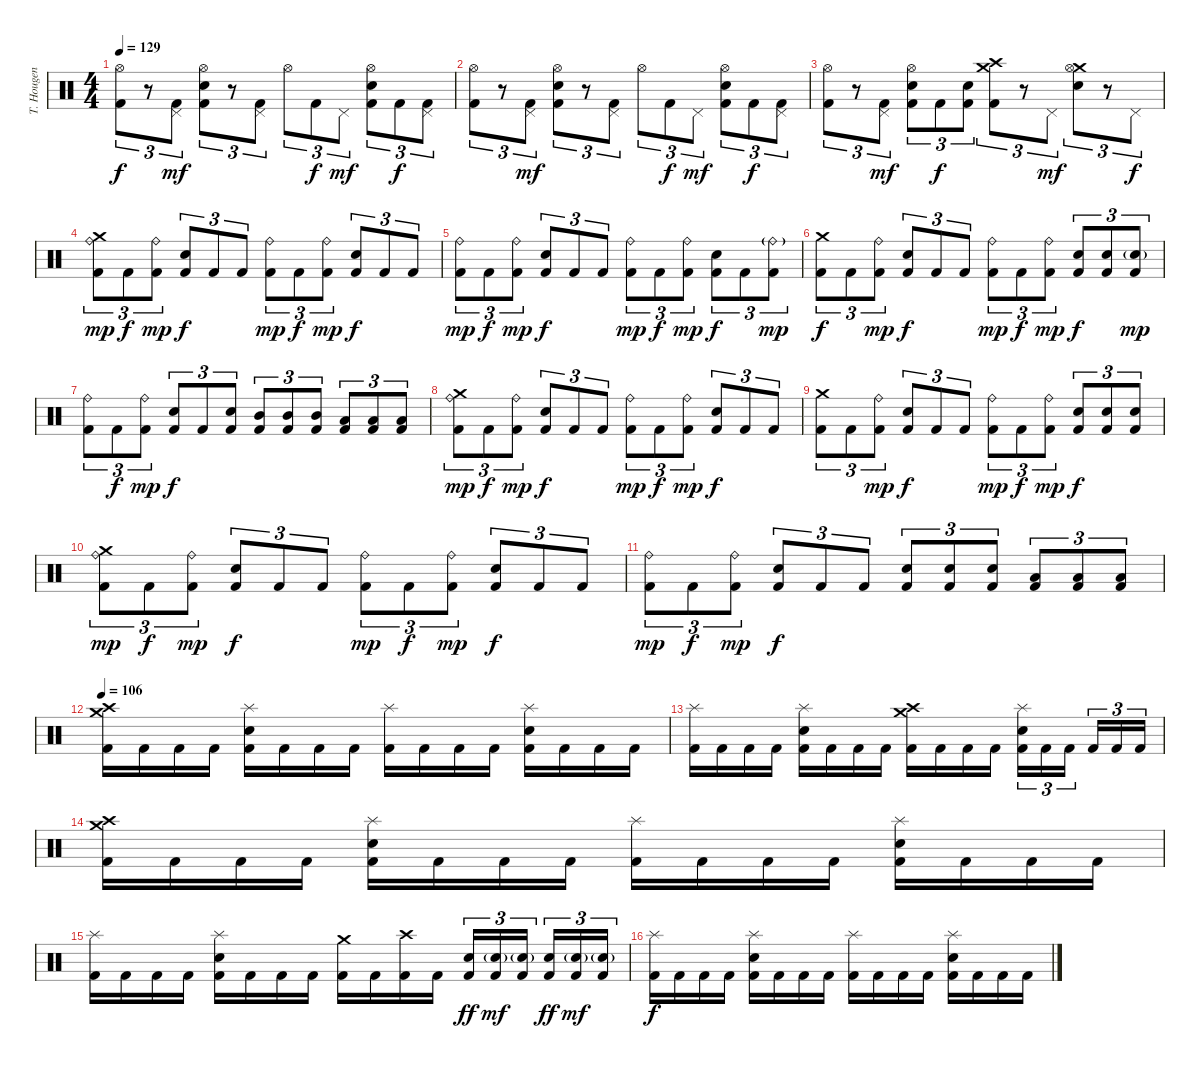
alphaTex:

\track ("T. Hougen - Drums" "T. Hougen ") {instrument percussion}
\staff {score}
\articulation defaults
\ts (4 4)
\tempo 129
\clef neutral
\ks c
("Hi-Hat (open)" "Kick (hit) 2").8{tu (3 2) dy f} r.8{tu (3 2)} ("Pedal Hi-Hat (hit)" "Kick (hit) 2").8{tu (3 2) dy mf} ("Hi-Hat (open)" "Electric Snare (hit)" "Kick (hit) 2").8{tu (3 2)} r.8{tu (3 2)} ("Pedal Hi-Hat (hit)" "Kick (hit) 2").8{tu (3 2)} "Hi-Hat (open)".8{tu (3 2)} "Kick (hit) 2".8{tu (3 2) dy f} "Pedal Hi-Hat (hit)".8{tu (3 2) dy mf} ("Hi-Hat (open)" "Electric Snare (hit)" "Kick (hit) 2").8{tu (3 2)} "Kick (hit) 2".8{tu (3 2) dy f} ("Pedal Hi-Hat (hit)" "Kick (hit) 2").8{tu (3 2)} |
("Hi-Hat (open)" "Kick (hit) 2").8{tu (3 2)} r.8{tu (3 2)} ("Pedal Hi-Hat (hit)" "Kick (hit) 2").8{tu (3 2) dy mf} ("Hi-Hat (open)" "Electric Snare (hit)" "Kick (hit) 2").8{tu (3 2)} r.8{tu (3 2)} ("Pedal Hi-Hat (hit)" "Kick (hit) 2").8{tu (3 2)} "Hi-Hat (open)".8{tu (3 2)} "Kick (hit) 2".8{tu (3 2) dy f} "Pedal Hi-Hat (hit)".8{tu (3 2) dy mf} ("Hi-Hat (open)" "Electric Snare (hit)" "Kick (hit) 2").8{tu (3 2)} "Kick (hit) 2".8{tu (3 2) dy f} ("Pedal Hi-Hat (hit)" "Kick (hit) 2").8{tu (3 2)} |
("Hi-Hat (open)" "Kick (hit) 2").8{tu (3 2)} r.8{tu (3 2)} ("Pedal Hi-Hat (hit)" "Kick (hit) 2").8{tu (3 2) dy mf} ("Hi-Hat (open)" "Electric Snare (hit)" "Kick (hit) 2").8{tu (3 2)} "Kick (hit) 2".8{tu (3 2) dy f} ("Electric Snare (hit)" "Kick (hit) 2").8{tu (3 2)} ("Crash medium (hit)" "Crash high (hit)" "Kick (hit) 2").8{tu (3 2)} r.8{tu (3 2)} "Pedal Hi-Hat (hit)".8{tu (3 2) dy mf} ("Crash medium (hit)" "Hi-Hat (open)" "Electric Snare (hit)").8{tu (3 2)} r.8{tu (3 2)} "Pedal Hi-Hat (hit)".8{tu (3 2) dy f} |
("Crash medium (hit)" "Ride (bell)" "Kick (hit) 2").8{tu (3 2) dy mp volume 12} "Kick (hit) 2".8{tu (3 2) dy f} ("Ride (bell)" "Kick (hit) 2").8{tu (3 2) dy mp} ("Electric Snare (hit)" "Kick (hit) 2").8{tu (3 2) dy f} "Kick (hit) 2".8{tu (3 2)} "Kick (hit) 2".8{tu (3 2)} ("Ride (bell)" "Kick (hit) 2").8{tu (3 2) dy mp} "Kick (hit) 2".8{tu (3 2) dy f} ("Ride (bell)" "Kick (hit) 2").8{tu (3 2) dy mp} ("Electric Snare (hit)" "Kick (hit) 2").8{tu (3 2) dy f} "Kick (hit) 2".8{tu (3 2)} "Kick (hit) 2".8{tu (3 2)} |
("Ride (bell)" "Kick (hit) 2").8{tu (3 2) dy mp} "Kick (hit) 2".8{tu (3 2) dy f} ("Ride (bell)" "Kick (hit) 2").8{tu (3 2) dy mp} ("Electric Snare (hit)" "Kick (hit) 2").8{tu (3 2) dy f} "Kick (hit) 2".8{tu (3 2)} "Kick (hit) 2".8{tu (3 2)} ("Ride (bell)" "Kick (hit) 2").8{tu (3 2) dy mp} "Kick (hit) 2".8{tu (3 2) dy f} ("Ride (bell)" "Kick (hit) 2").8{tu (3 2) dy mp} ("Electric Snare (hit)" "Kick (hit) 2").8{tu (3 2) dy f} "Kick (hit) 2".8{tu (3 2)} ("Ride (bell)"{g} "Kick (hit) 2").8{tu (3 2) dy mp} |
("Crash medium (hit)" "Kick (hit) 2").8{tu (3 2) dy f} "Kick (hit) 2".8{tu (3 2)} ("Ride (bell)" "Kick (hit) 2").8{tu (3 2) dy mp} ("Electric Snare (hit)" "Kick (hit) 2").8{tu (3 2) dy f} "Kick (hit) 2".8{tu (3 2)} "Kick (hit) 2".8{tu (3 2)} ("Ride (bell)" "Kick (hit) 2").8{tu (3 2) dy mp} "Kick (hit) 2".8{tu (3 2) dy f} ("Ride (bell)" "Kick (hit) 2").8{tu (3 2) dy mp} ("Electric Snare (hit)" "Kick (hit) 2").8{tu (3 2) dy f} ("Electric Snare (hit)" "Kick (hit) 2").8{tu (3 2)} ("Electric Snare (hit)"{g} "Kick (hit) 2").8{tu (3 2) dy mp} |
("Ride (bell)" "Kick (hit) 2").8{tu (3 2)} "Kick (hit) 2".8{tu (3 2) dy f} ("Ride (bell)" "Kick (hit) 2").8{tu (3 2) dy mp} ("Electric Snare (hit)" "Kick (hit) 2").8{tu (3 2) dy f} "Kick (hit) 2".8{tu (3 2)} ("Electric Snare (hit)" "Kick (hit) 2").8{tu (3 2)} ("Mid Tom (hit)" "Kick (hit) 2").8{tu (3 2)} ("Mid Tom (hit)" "Kick (hit) 2").8{tu (3 2)} ("Mid Tom (hit)" "Kick (hit) 2").8{tu (3 2)} ("Low Tom (hit)" "Kick (hit) 2").8{tu (3 2)} ("Low Tom (hit)" "Kick (hit) 2").8{tu (3 2)} ("Low Tom (hit)" "Kick (hit) 2").8{tu (3 2)} |
("Crash medium (hit)" "Ride (bell)" "Kick (hit) 2").8{tu (3 2) dy mp} "Kick (hit) 2".8{tu (3 2) dy f} ("Ride (bell)" "Kick (hit) 2").8{tu (3 2) dy mp} ("Electric Snare (hit)" "Kick (hit) 2").8{tu (3 2) dy f} "Kick (hit) 2".8{tu (3 2)} "Kick (hit) 2".8{tu (3 2)} ("Ride (bell)" "Kick (hit) 2").8{tu (3 2) dy mp} "Kick (hit) 2".8{tu (3 2) dy f} ("Ride (bell)" "Kick (hit) 2").8{tu (3 2) dy mp} ("Electric Snare (hit)" "Kick (hit) 2").8{tu (3 2) dy f} "Kick (hit) 2".8{tu (3 2)} "Kick (hit) 2".8{tu (3 2)} |
("Crash medium (hit)" "Kick (hit) 2").8{tu (3 2)} "Kick (hit) 2".8{tu (3 2)} ("Ride (bell)" "Kick (hit) 2").8{tu (3 2) dy mp} ("Electric Snare (hit)" "Kick (hit) 2").8{tu (3 2) dy f} "Kick (hit) 2".8{tu (3 2)} "Kick (hit) 2".8{tu (3 2)} ("Ride (bell)" "Kick (hit) 2").8{tu (3 2) dy mp} "Kick (hit) 2".8{tu (3 2) dy f} ("Ride (bell)" "Kick (hit) 2").8{tu (3 2) dy mp} ("Electric Snare (hit)" "Kick (hit) 2").8{tu (3 2) dy f} ("Electric Snare (hit)" "Kick (hit) 2").8{tu (3 2)} ("Electric Snare (hit)" "Kick (hit) 2").8{tu (3 2)} |
("Crash medium (hit)" "Ride (bell)" "Kick (hit) 2").8{tu (3 2) dy mp} "Kick (hit) 2".8{tu (3 2) dy f} ("Ride (bell)" "Kick (hit) 2").8{tu (3 2) dy mp} ("Electric Snare (hit)" "Kick (hit) 2").8{tu (3 2) dy f} "Kick (hit) 2".8{tu (3 2)} "Kick (hit) 2".8{tu (3 2)} ("Ride (bell)" "Kick (hit) 2").8{tu (3 2) dy mp} "Kick (hit) 2".8{tu (3 2) dy f} ("Ride (bell)" "Kick (hit) 2").8{tu (3 2) dy mp} ("Electric Snare (hit)" "Kick (hit) 2").8{tu (3 2) dy f} "Kick (hit) 2".8{tu (3 2)} "Kick (hit) 2".8{tu (3 2)} |
("Ride (bell)" "Kick (hit) 2").8{tu (3 2) dy mp} "Kick (hit) 2".8{tu (3 2) dy f} ("Ride (bell)" "Kick (hit) 2").8{tu (3 2) dy mp} ("Electric Snare (hit)" "Kick (hit) 2").8{tu (3 2) dy f} "Kick (hit) 2".8{tu (3 2)} "Kick (hit) 2".8{tu (3 2)} ("Electric Snare (hit)" "Kick (hit) 2").8{tu (3 2)} ("Electric Snare (hit)" "Kick (hit) 2").8{tu (3 2)} ("Electric Snare (hit)" "Kick (hit) 2").8{tu (3 2)} ("Low Tom (hit)" "Kick (hit) 2").8{tu (3 2)} ("Low Tom (hit)" "Kick (hit) 2").8{tu (3 2)} ("Low Tom (hit)" "Kick (hit) 2").8{tu (3 2)} |
\tempo 106
("Crash high (hit)" "Crash medium (hit)" "Kick (hit) 2").16{volume 13} "Kick (hit) 2".16 "Kick (hit) 2".16 "Kick (hit) 2".16 ("Splash (hit)" "Electric Snare (hit)" "Kick (hit) 2").16 "Kick (hit) 2".16 "Kick (hit) 2".16 "Kick (hit) 2".16 ("Splash (hit)" "Kick (hit) 2").16 "Kick (hit) 2".16 "Kick (hit) 2".16 "Kick (hit) 2".16 ("Splash (hit)" "Electric Snare (hit)" "Kick (hit) 2").16 "Kick (hit) 2".16 "Kick (hit) 2".16 "Kick (hit) 2".16 |
("Splash (hit)" "Kick (hit) 2").16 "Kick (hit) 2".16 "Kick (hit) 2".16 "Kick (hit) 2".16 ("Splash (hit)" "Electric Snare (hit)" "Kick (hit) 2").16 "Kick (hit) 2".16 "Kick (hit) 2".16 "Kick (hit) 2".16 ("Crash high (hit)" "Crash medium (hit)" "Kick (hit) 2").16 "Kick (hit) 2".16 "Kick (hit) 2".16 "Kick (hit) 2".16 ("Splash (hit)" "Electric Snare (hit)" "Kick (hit) 2").16{tu (3 2)} "Kick (hit) 2".16{tu (3 2)} "Kick (hit) 2".16{tu (3 2)} "Kick (hit) 2".16{tu (3 2)} "Kick (hit) 2".16{tu (3 2)} "Kick (hit) 2".16{tu (3 2)} |
("Crash high (hit)" "Crash medium (hit)" "Kick (hit) 2").16 "Kick (hit) 2".16 "Kick (hit) 2".16 "Kick (hit) 2".16 ("Splash (hit)" "Electric Snare (hit)" "Kick (hit) 2").16 "Kick (hit) 2".16 "Kick (hit) 2".16 "Kick (hit) 2".16 ("Splash (hit)" "Kick (hit) 2").16 "Kick (hit) 2".16 "Kick (hit) 2".16 "Kick (hit) 2".16 ("Splash (hit)" "Electric Snare (hit)" "Kick (hit) 2").16 "Kick (hit) 2".16 "Kick (hit) 2".16 "Kick (hit) 2".16 |
("Splash (hit)" "Kick (hit) 2").16 "Kick (hit) 2".16 "Kick (hit) 2".16 "Kick (hit) 2".16 ("Splash (hit)" "Electric Snare (hit)" "Kick (hit) 2").16 "Kick (hit) 2".16 "Kick (hit) 2".16 "Kick (hit) 2".16 ("Crash medium (hit)" "Kick (hit) 2").16 "Kick (hit) 2".16 ("Crash high (hit)" "Kick (hit) 2").16 "Kick (hit) 2".16 ("Electric Snare (hit)" "Kick (hit) 2").16{tu (3 2) dy ff} ("Electric Snare (hit)"{g} "Kick (hit) 2").16{tu (3 2) dy mf} ("Electric Snare (hit)"{g} "Kick (hit) 2").16{tu (3 2)} ("Electric Snare (hit)" "Kick (hit) 2").16{tu (3 2) dy ff} ("Electric Snare (hit)"{g} "Kick (hit) 2").16{tu (3 2) dy mf} ("Electric Snare (hit)"{g} "Kick (hit) 2").16{tu (3 2)} |
("Splash (hit)" "Kick (hit) 2").16{dy f} "Kick (hit) 2".16 "Kick (hit) 2".16 "Kick (hit) 2".16 ("Splash (hit)" "Electric Snare (hit)" "Kick (hit) 2").16 "Kick (hit) 2".16 "Kick (hit) 2".16 "Kick (hit) 2".16 ("Splash (hit)" "Kick (hit) 2").16 "Kick (hit) 2".16 "Kick (hit) 2".16 "Kick (hit) 2".16 ("Splash (hit)" "Electric Snare (hit)" "Kick (hit) 2").16 "Kick (hit) 2".16 "Kick (hit) 2".16 "Kick (hit) 2".16
